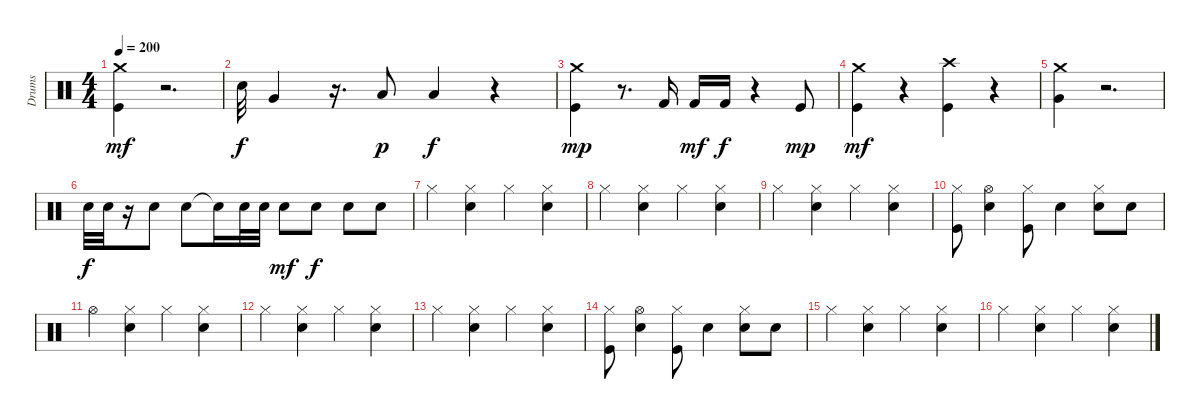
\track ("Drums" "Drums") {instrument percussion}
\staff {score}
\articulation defaults
\ts (4 4)
\tempo 200
\clef neutral
\ks c
("Crash medium (hit)" "Kick (hit)").4{dy mf} r.2{d} |
"Snare (hit) 2".32{dy f} "Very Low Tom (hit)".4 r.16{d} "Low Tom (hit)".8{dy p} "Low Floor Tom (hit)".4{dy f} r.4 |
("Crash medium (hit)" "Kick (hit)").4{dy mp} r.8{d} "Kick (hit) 2".16 "Kick (hit) 2".16{dy mf} "Kick (hit) 2".16{dy f} r.4 "Kick (hit)".8{dy mp} |
("Kick (hit)" "Crash medium (hit)").4{dy mf} r.4 ("Crash high (hit)" "Kick (hit)").4 r.4 |
("Crash medium (hit)" "Very Low Tom (hit)").4 r.2{d} |
"Electric Snare (hit)".32{dy f} "Electric Snare (hit)".32 r.16 "Electric Snare (hit)".8 "Electric Snare (hit)".8 "Snare (hit)"{t}.16 "Electric Snare (hit)".32 "Electric Snare (hit)".32 "Electric Snare (hit)".8{dy mf} "Electric Snare (hit)".8{dy f} "Electric Snare (hit)".8 "Electric Snare (hit)".8 |
"Hi-Hat (closed)".4 ("Snare (hit) 2" "Hi-Hat (closed)").4 "Hi-Hat (closed)".4 ("Snare (hit) 2" "Hi-Hat (closed)").4 |
"Hi-Hat (closed)".4 ("Snare (hit) 2" "Hi-Hat (closed)").4 "Hi-Hat (closed)".4 ("Snare (hit) 2" "Hi-Hat (closed)").4 |
"Hi-Hat (closed)".4 ("Snare (hit) 2" "Hi-Hat (closed)").4 "Hi-Hat (closed)".4 ("Snare (hit) 2" "Hi-Hat (closed)").4 |
("Kick (hit)" "Hi-Hat (closed)").8 ("Hi-Hat (open)" "Electric Snare (hit)").4 ("Kick (hit)" "Hi-Hat (closed)").8 "Electric Snare (hit)".4 ("Electric Snare (hit)" "Hi-Hat (closed)").8 "Electric Snare (hit)".8 |
"Hi-Hat (open)".4 ("Snare (hit) 2" "Hi-Hat (closed)").4 "Hi-Hat (closed)".4 ("Snare (hit) 2" "Hi-Hat (closed)").4 |
"Hi-Hat (closed)".4 ("Snare (hit) 2" "Hi-Hat (closed)").4 "Hi-Hat (closed)".4 ("Snare (hit) 2" "Hi-Hat (closed)").4 |
"Hi-Hat (closed)".4 ("Snare (hit) 2" "Hi-Hat (closed)").4 "Hi-Hat (closed)".4 ("Snare (hit) 2" "Hi-Hat (closed)").4 |
("Kick (hit)" "Hi-Hat (closed)").8 ("Hi-Hat (open)" "Electric Snare (hit)").4 ("Kick (hit)" "Hi-Hat (closed)").8 "Electric Snare (hit)".4 ("Electric Snare (hit)" "Hi-Hat (closed)").8 "Electric Snare (hit)".8 |
"Hi-Hat (closed)".4 ("Snare (hit) 2" "Hi-Hat (closed)").4 "Hi-Hat (closed)".4 ("Snare (hit) 2" "Hi-Hat (closed)").4 |
"Hi-Hat (closed)".4 ("Snare (hit) 2" "Hi-Hat (closed)").4 "Hi-Hat (closed)".4 ("Snare (hit) 2" "Hi-Hat (closed)").4
